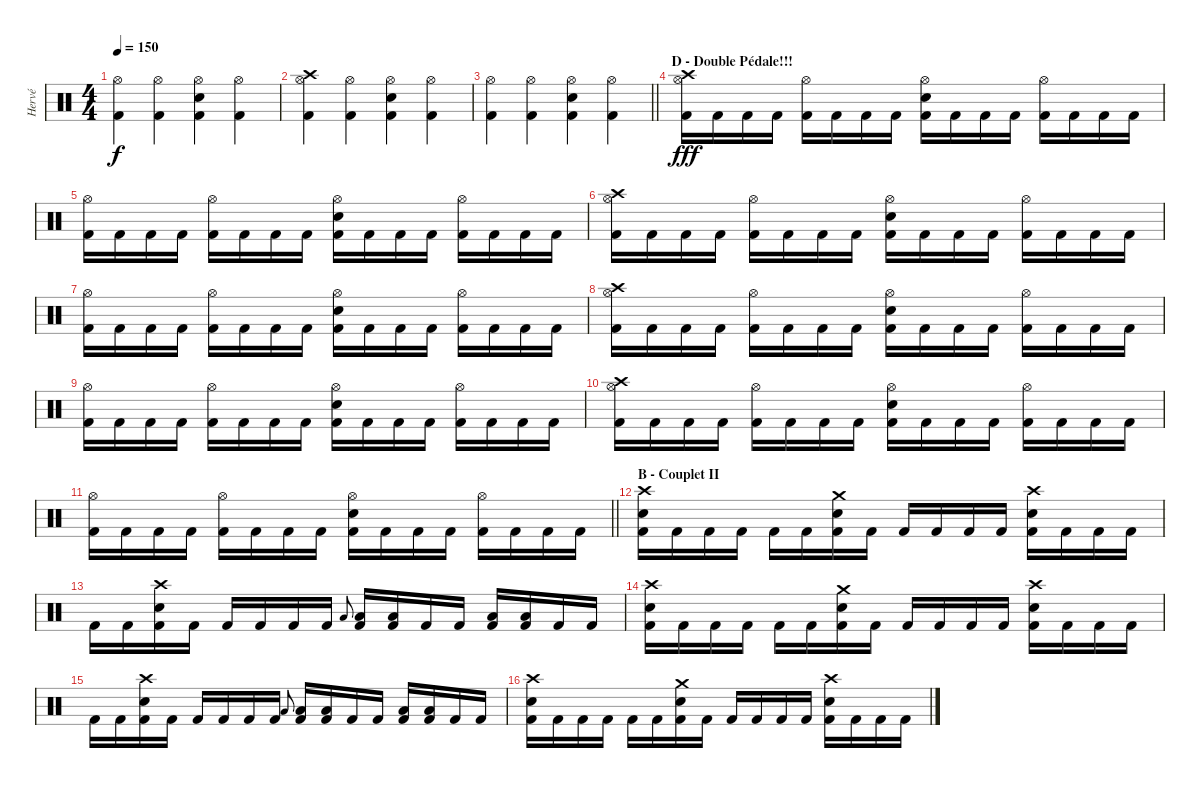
\track ("Hervé" "Hervé") {instrument percussion}
\staff {score}
\articulation defaults
\ts (4 4)
\tempo 150
\clef neutral
\ks c
("Hi-Hat (open)" "Kick (hit) 2").4{dy f} ("Hi-Hat (open)" "Kick (hit) 2").4 ("Hi-Hat (open)" "Snare (hit) 2" "Kick (hit) 2").4 ("Hi-Hat (open)" "Kick (hit) 2").4 |
("Crash high (hit)" "Hi-Hat (open)" "Kick (hit) 2").4 ("Hi-Hat (open)" "Kick (hit) 2").4 ("Hi-Hat (open)" "Snare (hit) 2" "Kick (hit) 2").4 ("Hi-Hat (open)" "Kick (hit) 2").4 |
\barLineRight lightlight
("Hi-Hat (open)" "Kick (hit) 2").4 ("Hi-Hat (open)" "Kick (hit) 2").4 ("Hi-Hat (open)" "Snare (hit) 2" "Kick (hit) 2").4 ("Hi-Hat (open)" "Kick (hit) 2").4 |
\section ("" "D - Double Pédale!!!")
("Crash high (hit)" "Hi-Hat (open)" "Kick (hit) 2").16{dy fff} "Kick (hit) 2".16 "Kick (hit) 2".16 "Kick (hit) 2".16 ("Hi-Hat (open)" "Kick (hit) 2").16 "Kick (hit) 2".16 "Kick (hit) 2".16 "Kick (hit) 2".16 ("Hi-Hat (open)" "Snare (hit) 2" "Kick (hit) 2").16 "Kick (hit) 2".16 "Kick (hit) 2".16 "Kick (hit) 2".16 ("Hi-Hat (open)" "Kick (hit) 2").16 "Kick (hit) 2".16 "Kick (hit) 2".16 "Kick (hit) 2".16 |
("Hi-Hat (open)" "Kick (hit) 2").16 "Kick (hit) 2".16 "Kick (hit) 2".16 "Kick (hit) 2".16 ("Hi-Hat (open)" "Kick (hit) 2").16 "Kick (hit) 2".16 "Kick (hit) 2".16 "Kick (hit) 2".16 ("Hi-Hat (open)" "Snare (hit) 2" "Kick (hit) 2").16 "Kick (hit) 2".16 "Kick (hit) 2".16 "Kick (hit) 2".16 ("Hi-Hat (open)" "Kick (hit) 2").16 "Kick (hit) 2".16 "Kick (hit) 2".16 "Kick (hit) 2".16 |
("Crash high (hit)" "Hi-Hat (open)" "Kick (hit) 2").16 "Kick (hit) 2".16 "Kick (hit) 2".16 "Kick (hit) 2".16 ("Hi-Hat (open)" "Kick (hit) 2").16 "Kick (hit) 2".16 "Kick (hit) 2".16 "Kick (hit) 2".16 ("Hi-Hat (open)" "Snare (hit) 2" "Kick (hit) 2").16 "Kick (hit) 2".16 "Kick (hit) 2".16 "Kick (hit) 2".16 ("Hi-Hat (open)" "Kick (hit) 2").16 "Kick (hit) 2".16 "Kick (hit) 2".16 "Kick (hit) 2".16 |
("Hi-Hat (open)" "Kick (hit) 2").16 "Kick (hit) 2".16 "Kick (hit) 2".16 "Kick (hit) 2".16 ("Hi-Hat (open)" "Kick (hit) 2").16 "Kick (hit) 2".16 "Kick (hit) 2".16 "Kick (hit) 2".16 ("Hi-Hat (open)" "Snare (hit) 2" "Kick (hit) 2").16 "Kick (hit) 2".16 "Kick (hit) 2".16 "Kick (hit) 2".16 ("Hi-Hat (open)" "Kick (hit) 2").16 "Kick (hit) 2".16 "Kick (hit) 2".16 "Kick (hit) 2".16 |
("Crash high (hit)" "Hi-Hat (open)" "Kick (hit) 2").16 "Kick (hit) 2".16 "Kick (hit) 2".16 "Kick (hit) 2".16 ("Hi-Hat (open)" "Kick (hit) 2").16 "Kick (hit) 2".16 "Kick (hit) 2".16 "Kick (hit) 2".16 ("Hi-Hat (open)" "Snare (hit) 2" "Kick (hit) 2").16 "Kick (hit) 2".16 "Kick (hit) 2".16 "Kick (hit) 2".16 ("Hi-Hat (open)" "Kick (hit) 2").16 "Kick (hit) 2".16 "Kick (hit) 2".16 "Kick (hit) 2".16 |
("Hi-Hat (open)" "Kick (hit) 2").16 "Kick (hit) 2".16 "Kick (hit) 2".16 "Kick (hit) 2".16 ("Hi-Hat (open)" "Kick (hit) 2").16 "Kick (hit) 2".16 "Kick (hit) 2".16 "Kick (hit) 2".16 ("Hi-Hat (open)" "Snare (hit) 2" "Kick (hit) 2").16 "Kick (hit) 2".16 "Kick (hit) 2".16 "Kick (hit) 2".16 ("Hi-Hat (open)" "Kick (hit) 2").16 "Kick (hit) 2".16 "Kick (hit) 2".16 "Kick (hit) 2".16 |
("Crash high (hit)" "Hi-Hat (open)" "Kick (hit) 2").16 "Kick (hit) 2".16 "Kick (hit) 2".16 "Kick (hit) 2".16 ("Hi-Hat (open)" "Kick (hit) 2").16 "Kick (hit) 2".16 "Kick (hit) 2".16 "Kick (hit) 2".16 ("Hi-Hat (open)" "Snare (hit) 2" "Kick (hit) 2").16 "Kick (hit) 2".16 "Kick (hit) 2".16 "Kick (hit) 2".16 ("Hi-Hat (open)" "Kick (hit) 2").16 "Kick (hit) 2".16 "Kick (hit) 2".16 "Kick (hit) 2".16 |
\barLineRight lightlight
("Hi-Hat (open)" "Kick (hit) 2").16 "Kick (hit) 2".16 "Kick (hit) 2".16 "Kick (hit) 2".16 ("Hi-Hat (open)" "Kick (hit) 2").16 "Kick (hit) 2".16 "Kick (hit) 2".16 "Kick (hit) 2".16 ("Hi-Hat (open)" "Snare (hit) 2" "Kick (hit) 2").16 "Kick (hit) 2".16 "Kick (hit) 2".16 "Kick (hit) 2".16 ("Hi-Hat (open)" "Kick (hit) 2").16 "Kick (hit) 2".16 "Kick (hit) 2".16 "Kick (hit) 2".16 |
\section ("" "B - Couplet II")
("Crash high (hit)" "Snare (hit) 2" "Kick (hit) 2").16 "Kick (hit) 2".16 "Kick (hit) 2".16 "Kick (hit) 2".16 "Kick (hit) 2".16 "Kick (hit) 2".16 ("Crash medium (hit)" "Snare (hit) 2" "Kick (hit) 2").16 "Kick (hit) 2".16 "Kick (hit) 2".16 "Kick (hit) 2".16 "Kick (hit) 2".16 "Kick (hit) 2".16 ("Crash high (hit)" "Snare (hit) 2" "Kick (hit) 2").16 "Kick (hit) 2".16 "Kick (hit) 2".16 "Kick (hit) 2".16 |
"Kick (hit) 2".16 "Kick (hit) 2".16 ("Crash high (hit)" "Snare (hit) 2" "Kick (hit) 2").16 "Kick (hit) 2".16 "Kick (hit) 2".16 "Kick (hit) 2".16 "Kick (hit) 2".16 "Kick (hit) 2".16 "Low Tom (hit)".8{gr onbeat} ("Low Tom (hit)" "Kick (hit) 2").16 ("Low Tom (hit)" "Kick (hit) 2").16 "Kick (hit) 2".16 "Kick (hit) 2".16 ("Low Tom (hit)" "Kick (hit) 2").16 ("Low Tom (hit)" "Kick (hit) 2").16 "Kick (hit) 2".16 "Kick (hit) 2".16 |
("Crash high (hit)" "Snare (hit) 2" "Kick (hit) 2").16 "Kick (hit) 2".16 "Kick (hit) 2".16 "Kick (hit) 2".16 "Kick (hit) 2".16 "Kick (hit) 2".16 ("Crash medium (hit)" "Snare (hit) 2" "Kick (hit) 2").16 "Kick (hit) 2".16 "Kick (hit) 2".16 "Kick (hit) 2".16 "Kick (hit) 2".16 "Kick (hit) 2".16 ("Crash high (hit)" "Snare (hit) 2" "Kick (hit) 2").16 "Kick (hit) 2".16 "Kick (hit) 2".16 "Kick (hit) 2".16 |
"Kick (hit) 2".16 "Kick (hit) 2".16 ("Crash high (hit)" "Snare (hit) 2" "Kick (hit) 2").16 "Kick (hit) 2".16 "Kick (hit) 2".16 "Kick (hit) 2".16 "Kick (hit) 2".16 "Kick (hit) 2".16 "Low Tom (hit)".8{gr onbeat} ("Low Floor Tom (hit)" "Kick (hit) 2").16 ("Low Floor Tom (hit)" "Kick (hit) 2").16 "Kick (hit) 2".16 "Kick (hit) 2".16 ("Low Floor Tom (hit)" "Kick (hit) 2").16 ("Low Floor Tom (hit)" "Kick (hit) 2").16 "Kick (hit) 2".16 "Kick (hit) 2".16 |
("Crash high (hit)" "Snare (hit) 2" "Kick (hit) 2").16 "Kick (hit) 2".16 "Kick (hit) 2".16 "Kick (hit) 2".16 "Kick (hit) 2".16 "Kick (hit) 2".16 ("Crash medium (hit)" "Snare (hit) 2" "Kick (hit) 2").16 "Kick (hit) 2".16 "Kick (hit) 2".16 "Kick (hit) 2".16 "Kick (hit) 2".16 "Kick (hit) 2".16 ("Crash high (hit)" "Snare (hit) 2" "Kick (hit) 2").16 "Kick (hit) 2".16 "Kick (hit) 2".16 "Kick (hit) 2".16
